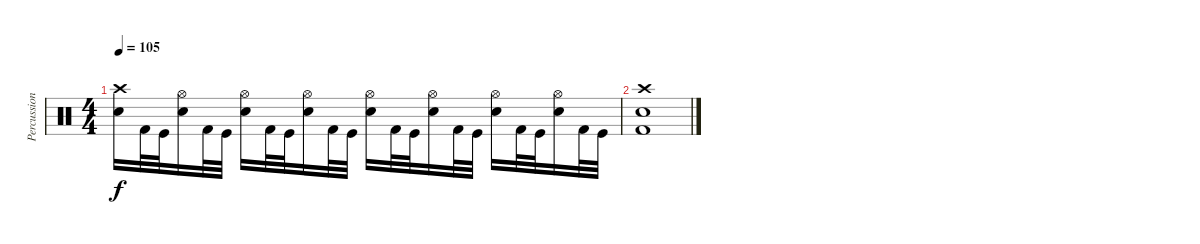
\track ("Percussion" "Percussion") {instrument percussion}
\staff {score}
\articulation defaults
\ts (4 4)
\tempo 105
\clef neutral
\ks c
("Snare (hit) 2" "Crash high (hit)").16{dy f} "Kick (hit) 2".32 "Kick (hit)".32 ("Snare (hit) 2" "Hi-Hat (open)").16 "Kick (hit) 2".32 "Kick (hit)".32 ("Snare (hit) 2" "Hi-Hat (open)").16 "Kick (hit) 2".32 "Kick (hit)".32 ("Snare (hit) 2" "Hi-Hat (open)").16 "Kick (hit) 2".32 "Kick (hit)".32 ("Snare (hit) 2" "Hi-Hat (open)").16 "Kick (hit) 2".32 "Kick (hit)".32 ("Snare (hit) 2" "Hi-Hat (open)").16 "Kick (hit) 2".32 "Kick (hit)".32 ("Snare (hit) 2" "Hi-Hat (open)").16 "Kick (hit) 2".32 "Kick (hit)".32 ("Snare (hit) 2" "Hi-Hat (open)").16 "Kick (hit) 2".32 "Kick (hit)".32 |
("Kick (hit) 2" "Snare (hit) 2" "Crash high (hit)").1
